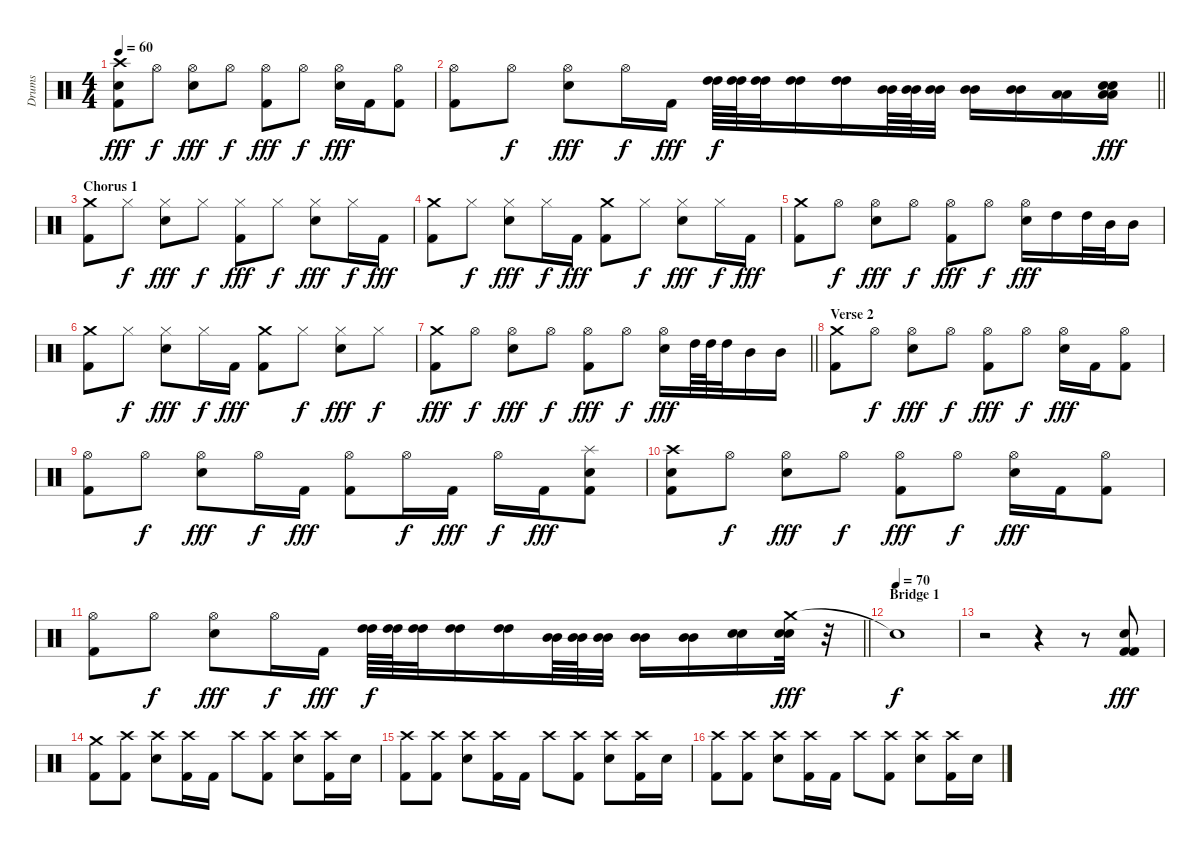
\track ("Drums" "Drums") {instrument percussion}
\staff {score}
\articulation defaults
\ts (4 4)
\tempo 60
\clef neutral
\ks c
("Crash high (hit)" "Snare (hit) 2" "Kick (hit) 2").8{dy fff} "Hi-Hat (open)".8{dy f} ("Hi-Hat (open)" "Snare (hit) 2").8{dy fff} "Hi-Hat (open)".8{dy f} ("Hi-Hat (open)" "Kick (hit) 2").8{dy fff} "Hi-Hat (open)".8{dy f} ("Hi-Hat (open)" "Snare (hit) 2").16{dy fff} "Kick (hit) 2".16 ("Hi-Hat (open)" "Kick (hit) 2").8 |
\barLineRight lightlight
("Hi-Hat (open)" "Kick (hit) 2").8 "Hi-Hat (open)".8{dy f} ("Hi-Hat (open)" "Snare (hit) 2").8{dy fff} "Hi-Hat (open)".16{dy f} "Kick (hit) 2".16{dy fff} ("High Tom (hit)" "High Tom (hit)").64{dy f} ("High Tom (hit)" "High Tom (hit)").64 ("High Tom (hit)" "High Tom (hit)").32 ("High Tom (hit)" "High Tom (hit)").16 ("High Tom (hit)" "High Tom (hit)").16 ("Mid Tom (hit)" "Mid Tom (hit)").64 ("Mid Tom (hit)" "Mid Tom (hit)").64 ("Mid Tom (hit)" "Mid Tom (hit)").32 ("Mid Tom (hit)" "Mid Tom (hit)").16 ("Mid Tom (hit)" "Mid Tom (hit)").16 ("Low Floor Tom (hit)" "Low Floor Tom (hit)").16 ("Low Floor Tom (hit)" "Low Floor Tom (hit)" "Snare (hit) 2" "Snare (hit) 2").16{dy fff} |
\section ("" "Chorus 1")
("Crash medium (hit)" "Kick (hit) 2").8 "Hi-Hat (closed)".8{dy f} ("Hi-Hat (closed)" "Snare (hit) 2").8{dy fff} "Hi-Hat (closed)".8{dy f} ("Hi-Hat (closed)" "Kick (hit) 2").8{dy fff} "Hi-Hat (closed)".8{dy f} ("Hi-Hat (closed)" "Snare (hit) 2").8{dy fff} "Hi-Hat (closed)".16{dy f} "Kick (hit) 2".16{dy fff} |
("Crash medium (hit)" "Kick (hit) 2").8 "Hi-Hat (closed)".8{dy f} ("Hi-Hat (closed)" "Snare (hit) 2").8{dy fff} "Hi-Hat (closed)".16{dy f} "Kick (hit) 2".16{dy fff} ("Crash medium (hit)" "Kick (hit) 2").8 "Hi-Hat (closed)".8{dy f} ("Hi-Hat (closed)" "Snare (hit) 2").8{dy fff} "Hi-Hat (closed)".16{dy f} "Kick (hit) 2".16{dy fff} |
("Crash medium (hit)" "Kick (hit) 2").8 "Hi-Hat (open)".8{dy f} ("Hi-Hat (open)" "Snare (hit) 2").8{dy fff} "Hi-Hat (open)".8{dy f} ("Hi-Hat (open)" "Kick (hit) 2").8{dy fff} "Hi-Hat (open)".8{dy f} ("Hi-Hat (open)" "Snare (hit) 2").16{dy fff} "High Tom (hit)".16 "High Tom (hit)".32 "Mid Tom (hit)".32 "Mid Tom (hit)".16 |
("Crash medium (hit)" "Kick (hit) 2").8 "Hi-Hat (closed)".8{dy f} ("Hi-Hat (closed)" "Snare (hit) 2").8{dy fff} "Hi-Hat (closed)".16{dy f} "Kick (hit) 2".16{dy fff} ("Crash medium (hit)" "Kick (hit) 2").8 "Hi-Hat (closed)".8{dy f} ("Hi-Hat (closed)" "Snare (hit) 2").8{dy fff} "Hi-Hat (closed)".8{dy f} |
\barLineRight lightlight
("Crash medium (hit)" "Kick (hit) 2").8{dy fff} "Hi-Hat (open)".8{dy f} ("Hi-Hat (open)" "Snare (hit) 2").8{dy fff} "Hi-Hat (open)".8{dy f} ("Hi-Hat (open)" "Kick (hit) 2").8{dy fff} "Hi-Hat (open)".8{dy f} ("Hi-Hat (open)" "Snare (hit) 2").16{dy fff} "High Tom (hit)".64 "High Tom (hit)".64 "High Tom (hit)".32 "Mid Tom (hit)".16 "Mid Tom (hit)".16 |
\section ("" "Verse 2")
("Crash medium (hit)" "Kick (hit) 2").8 "Hi-Hat (open)".8{dy f} ("Hi-Hat (open)" "Snare (hit) 2").8{dy fff} "Hi-Hat (open)".8{dy f} ("Hi-Hat (open)" "Kick (hit) 2").8{dy fff} "Hi-Hat (open)".8{dy f} ("Hi-Hat (open)" "Snare (hit) 2").16{dy fff} "Kick (hit) 2".16 ("Hi-Hat (open)" "Kick (hit) 2").8 |
("Hi-Hat (open)" "Kick (hit) 2").8 "Hi-Hat (open)".8{dy f} ("Hi-Hat (open)" "Snare (hit) 2").8{dy fff} "Hi-Hat (open)".16{dy f} "Kick (hit) 2".16{dy fff} ("Hi-Hat (open)" "Kick (hit) 2").8 "Hi-Hat (open)".16{dy f} "Kick (hit) 2".16{dy fff} "Hi-Hat (open)".16{dy f} "Kick (hit) 2".16{dy fff} ("Splash (hit)" "Snare (hit) 2" "Kick (hit) 2").8 |
("Crash high (hit)" "Snare (hit) 2" "Kick (hit) 2").8 "Hi-Hat (open)".8{dy f} ("Hi-Hat (open)" "Snare (hit) 2").8{dy fff} "Hi-Hat (open)".8{dy f} ("Hi-Hat (open)" "Kick (hit) 2").8{dy fff} "Hi-Hat (open)".8{dy f} ("Hi-Hat (open)" "Snare (hit) 2").16{dy fff} "Kick (hit) 2".16 ("Hi-Hat (open)" "Kick (hit) 2").8 |
\barLineRight lightlight
("Hi-Hat (open)" "Kick (hit) 2").8 "Hi-Hat (open)".8{dy f} ("Hi-Hat (open)" "Snare (hit) 2").8{dy fff} "Hi-Hat (open)".16{dy f} "Kick (hit) 2".16{dy fff} ("High Tom (hit)" "High Tom (hit)").64{dy f} ("High Tom (hit)" "High Tom (hit)").64 ("High Tom (hit)" "High Tom (hit)").32 ("High Tom (hit)" "High Tom (hit)").16 ("High Tom (hit)" "High Tom (hit)").16 ("Mid Tom (hit)" "Mid Tom (hit)").64 ("Mid Tom (hit)" "Mid Tom (hit)").64 ("Mid Tom (hit)" "Mid Tom (hit)").32 ("Mid Tom (hit)" "Mid Tom (hit)").16 ("Mid Tom (hit)" "Mid Tom (hit)").16 ("Snare (hit) 2" "Snare (hit) 2").16 ("Crash medium (hit)" "Snare (hit) 2" "Snare (hit) 2").32{dy fff} r.32 |
\section ("" "Bridge 1")
\tempo (70)
"Snare (hit)"{t}.1{dy f} |
r.2 r.4 r.8 ("Snare (hit) 2" "Kick (hit) 2" "Kick (hit) 2").8{dy fff} |
("Crash medium (hit)" "Kick (hit) 2").8 ("Crash high (hit)" "Kick (hit) 2").8 ("Crash high (hit)" "Snare (hit) 2").8 ("Crash high (hit)" "Kick (hit) 2").16 "Kick (hit) 2".16 "Crash high (hit)".8 ("Crash high (hit)" "Kick (hit) 2").8 ("Crash high (hit)" "Snare (hit) 2").8 ("Crash high (hit)" "Kick (hit) 2").16 "Snare (hit) 2".16 |
("Crash high (hit)" "Kick (hit) 2").8 ("Crash high (hit)" "Kick (hit) 2").8 ("Crash high (hit)" "Snare (hit) 2").8 ("Crash high (hit)" "Kick (hit) 2").16 "Kick (hit) 2".16 "Crash high (hit)".8 ("Crash high (hit)" "Kick (hit) 2").8 ("Crash high (hit)" "Snare (hit) 2").8 ("Crash high (hit)" "Kick (hit) 2").16 "Snare (hit) 2".16 |
("Crash high (hit)" "Kick (hit) 2").8 ("Crash high (hit)" "Kick (hit) 2").8 ("Crash high (hit)" "Snare (hit) 2").8 ("Crash high (hit)" "Kick (hit) 2").16 "Kick (hit) 2".16 "Crash high (hit)".8 ("Crash high (hit)" "Kick (hit) 2").8 ("Crash high (hit)" "Snare (hit) 2").8 ("Crash high (hit)" "Kick (hit) 2").16 "Snare (hit) 2".16
